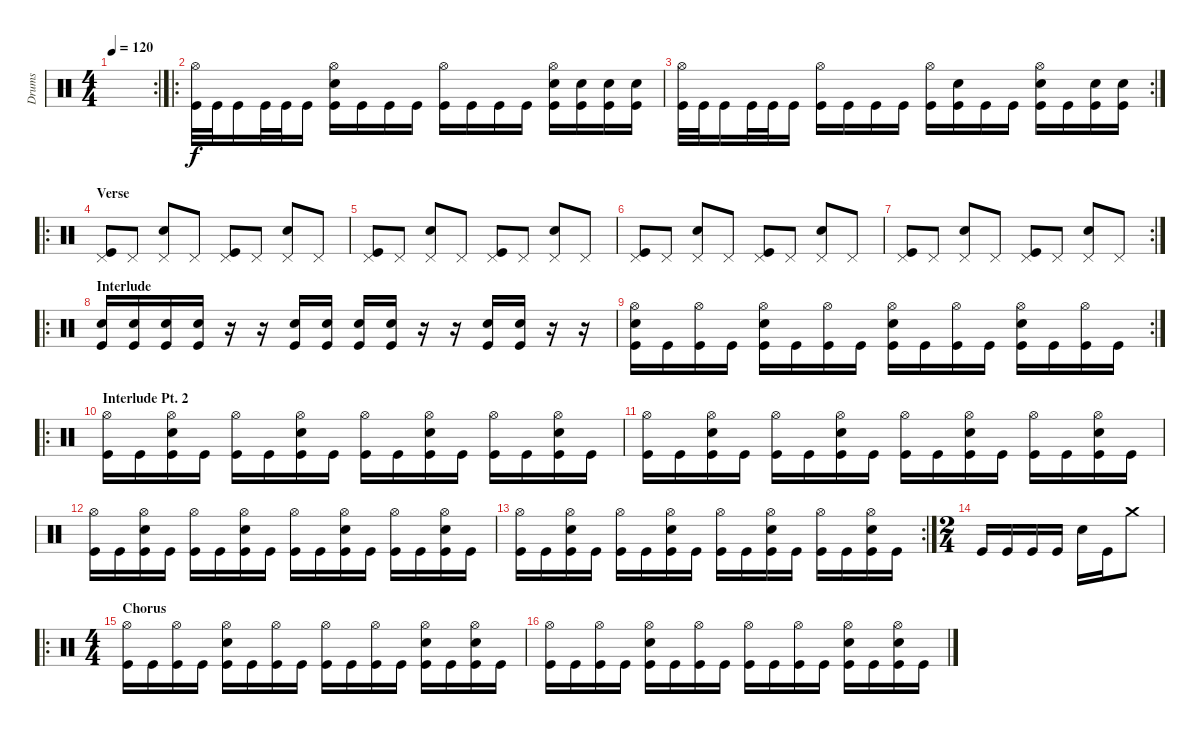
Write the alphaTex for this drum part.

\track ("Drums" "Drums") {instrument percussion}
\staff {score}
\articulation defaults
\rc 2
\ts (4 4)
\tempo 120
\clef neutral
\ks c
|
\ro
("Hi-Hat (open)" "Kick (hit)").32 "Kick (hit)".32 "Kick (hit)".16 "Kick (hit)".32 "Kick (hit)".32 "Kick (hit)".16 ("Hi-Hat (open)" "Snare (hit) 2" "Kick (hit)").16 "Kick (hit)".16 "Kick (hit)".16 "Kick (hit)".16 ("Hi-Hat (open)" "Kick (hit)").16 "Kick (hit)".16 "Kick (hit)".16 "Kick (hit)".16 ("Hi-Hat (open)" "Snare (hit) 2" "Kick (hit)").16 ("Snare (hit) 2" "Kick (hit)").16 ("Snare (hit) 2" "Kick (hit)").16 ("Snare (hit) 2" "Kick (hit)").16 |
\rc 2
("Hi-Hat (open)" "Kick (hit)").32 "Kick (hit)".32 "Kick (hit)".16 "Kick (hit)".32 "Kick (hit)".32 "Kick (hit)".16 ("Hi-Hat (open)" "Kick (hit)").16 "Kick (hit)".16 "Kick (hit)".16 "Kick (hit)".16 ("Hi-Hat (open)" "Kick (hit)").16 ("Snare (hit) 2" "Kick (hit)").16 "Kick (hit)".16 "Kick (hit)".16 ("Hi-Hat (open)" "Snare (hit) 2" "Kick (hit)").16 "Kick (hit)".16 ("Snare (hit) 2" "Kick (hit)").16 ("Snare (hit) 2" "Kick (hit)").16 |
\ro
\section ("" "Verse")
("Pedal Hi-Hat (hit)" "Kick (hit)").8 "Pedal Hi-Hat (hit)".8 ("Pedal Hi-Hat (hit)" "Snare (hit) 2").8 "Pedal Hi-Hat (hit)".8 ("Pedal Hi-Hat (hit)" "Kick (hit)").8 "Pedal Hi-Hat (hit)".8 ("Pedal Hi-Hat (hit)" "Snare (hit) 2").8 "Pedal Hi-Hat (hit)".8 |
("Pedal Hi-Hat (hit)" "Kick (hit)").8 "Pedal Hi-Hat (hit)".8 ("Pedal Hi-Hat (hit)" "Snare (hit) 2").8 "Pedal Hi-Hat (hit)".8 ("Pedal Hi-Hat (hit)" "Kick (hit)").8 "Pedal Hi-Hat (hit)".8 ("Pedal Hi-Hat (hit)" "Snare (hit) 2").8 "Pedal Hi-Hat (hit)".8 |
("Pedal Hi-Hat (hit)" "Kick (hit)").8 "Pedal Hi-Hat (hit)".8 ("Pedal Hi-Hat (hit)" "Snare (hit) 2").8 "Pedal Hi-Hat (hit)".8 ("Pedal Hi-Hat (hit)" "Kick (hit)").8 "Pedal Hi-Hat (hit)".8 ("Pedal Hi-Hat (hit)" "Snare (hit) 2").8 "Pedal Hi-Hat (hit)".8 |
\rc 2
("Pedal Hi-Hat (hit)" "Kick (hit)").8 "Pedal Hi-Hat (hit)".8 ("Pedal Hi-Hat (hit)" "Snare (hit) 2").8 "Pedal Hi-Hat (hit)".8 ("Pedal Hi-Hat (hit)" "Kick (hit)").8 "Pedal Hi-Hat (hit)".8 ("Pedal Hi-Hat (hit)" "Snare (hit) 2").8 "Pedal Hi-Hat (hit)".8 |
\ro
\section ("" "Interlude")
("Snare (hit) 2" "Kick (hit)").16 ("Snare (hit) 2" "Kick (hit)").16 ("Snare (hit) 2" "Kick (hit)").16 ("Snare (hit) 2" "Kick (hit)").16 r.16 r.16 ("Snare (hit) 2" "Kick (hit)").16 ("Snare (hit) 2" "Kick (hit)").16 ("Snare (hit) 2" "Kick (hit)").16 ("Snare (hit) 2" "Kick (hit)").16 r.16 r.16 ("Snare (hit) 2" "Kick (hit)").16 ("Snare (hit) 2" "Kick (hit)").16 r.16 r.16 |
\rc 2
("Hi-Hat (open)" "Snare (hit) 2" "Kick (hit)").16 "Kick (hit)".16 ("Hi-Hat (open)" "Kick (hit)").16 "Kick (hit)".16 ("Hi-Hat (open)" "Snare (hit) 2" "Kick (hit)").16 "Kick (hit)".16 ("Hi-Hat (open)" "Kick (hit)").16 "Kick (hit)".16 ("Hi-Hat (open)" "Snare (hit) 2" "Kick (hit)").16 "Kick (hit)".16 ("Hi-Hat (open)" "Kick (hit)").16 "Kick (hit)".16 ("Hi-Hat (open)" "Snare (hit) 2" "Kick (hit)").16 "Kick (hit)".16 ("Hi-Hat (open)" "Kick (hit)").16 "Kick (hit)".16 |
\ro
\section ("" "Interlude Pt. 2")
("Hi-Hat (open)" "Kick (hit)").16 "Kick (hit)".16 ("Hi-Hat (open)" "Snare (hit) 2" "Kick (hit)").16 "Kick (hit)".16 ("Hi-Hat (open)" "Kick (hit)").16 "Kick (hit)".16 ("Hi-Hat (open)" "Snare (hit) 2" "Kick (hit)").16 "Kick (hit)".16 ("Hi-Hat (open)" "Kick (hit)").16 "Kick (hit)".16 ("Hi-Hat (open)" "Snare (hit) 2" "Kick (hit)").16 "Kick (hit)".16 ("Hi-Hat (open)" "Kick (hit)").16 "Kick (hit)".16 ("Hi-Hat (open)" "Snare (hit) 2" "Kick (hit)").16 "Kick (hit)".16 |
("Hi-Hat (open)" "Kick (hit)").16 "Kick (hit)".16 ("Hi-Hat (open)" "Snare (hit) 2" "Kick (hit)").16 "Kick (hit)".16 ("Hi-Hat (open)" "Kick (hit)").16 "Kick (hit)".16 ("Hi-Hat (open)" "Snare (hit) 2" "Kick (hit)").16 "Kick (hit)".16 ("Hi-Hat (open)" "Kick (hit)").16 "Kick (hit)".16 ("Hi-Hat (open)" "Snare (hit) 2" "Kick (hit)").16 "Kick (hit)".16 ("Hi-Hat (open)" "Kick (hit)").16 "Kick (hit)".16 ("Hi-Hat (open)" "Snare (hit) 2" "Kick (hit)").16 "Kick (hit)".16 |
("Hi-Hat (open)" "Kick (hit)").16 "Kick (hit)".16 ("Hi-Hat (open)" "Snare (hit) 2" "Kick (hit)").16 "Kick (hit)".16 ("Hi-Hat (open)" "Kick (hit)").16 "Kick (hit)".16 ("Hi-Hat (open)" "Snare (hit) 2" "Kick (hit)").16 "Kick (hit)".16 ("Hi-Hat (open)" "Kick (hit)").16 "Kick (hit)".16 ("Hi-Hat (open)" "Snare (hit) 2" "Kick (hit)").16 "Kick (hit)".16 ("Hi-Hat (open)" "Kick (hit)").16 "Kick (hit)".16 ("Hi-Hat (open)" "Snare (hit) 2" "Kick (hit)").16 "Kick (hit)".16 |
\rc 2
("Hi-Hat (open)" "Kick (hit)").16 "Kick (hit)".16 ("Hi-Hat (open)" "Snare (hit) 2" "Kick (hit)").16 "Kick (hit)".16 ("Hi-Hat (open)" "Kick (hit)").16 "Kick (hit)".16 ("Hi-Hat (open)" "Snare (hit) 2" "Kick (hit)").16 "Kick (hit)".16 ("Hi-Hat (open)" "Kick (hit)").16 "Kick (hit)".16 ("Hi-Hat (open)" "Snare (hit) 2" "Kick (hit)").16 "Kick (hit)".16 ("Hi-Hat (open)" "Kick (hit)").16 "Kick (hit)".16 ("Hi-Hat (open)" "Snare (hit) 2" "Kick (hit)").16 "Kick (hit)".16 |
\ts (2 4)
"Kick (hit)".16 "Kick (hit)".16 "Kick (hit)".16 "Kick (hit)".16 "Snare (hit) 2".16 "Kick (hit)".16 "Crash medium (hit)".8 |
\ro
\ts (4 4)
\section ("" "Chorus")
("Hi-Hat (open)" "Kick (hit)").16 "Kick (hit)".16 ("Hi-Hat (open)" "Kick (hit)").16 "Kick (hit)".16 ("Hi-Hat (open)" "Snare (hit) 2" "Kick (hit)").16 "Kick (hit)".16 ("Hi-Hat (open)" "Kick (hit)").16 "Kick (hit)".16 ("Hi-Hat (open)" "Kick (hit)").16 "Kick (hit)".16 ("Hi-Hat (open)" "Kick (hit)").16 "Kick (hit)".16 ("Hi-Hat (open)" "Snare (hit) 2" "Kick (hit)").16 "Kick (hit)".16 ("Hi-Hat (open)" "Snare (hit) 2" "Kick (hit)").16 "Kick (hit)".16 |
("Hi-Hat (open)" "Kick (hit)").16 "Kick (hit)".16 ("Hi-Hat (open)" "Kick (hit)").16 "Kick (hit)".16 ("Hi-Hat (open)" "Snare (hit) 2" "Kick (hit)").16 "Kick (hit)".16 ("Hi-Hat (open)" "Kick (hit)").16 "Kick (hit)".16 ("Hi-Hat (open)" "Kick (hit)").16 "Kick (hit)".16 ("Hi-Hat (open)" "Kick (hit)").16 "Kick (hit)".16 ("Hi-Hat (open)" "Snare (hit) 2" "Kick (hit)").16 "Kick (hit)".16 ("Hi-Hat (open)" "Snare (hit) 2" "Kick (hit)").16 "Kick (hit)".16
